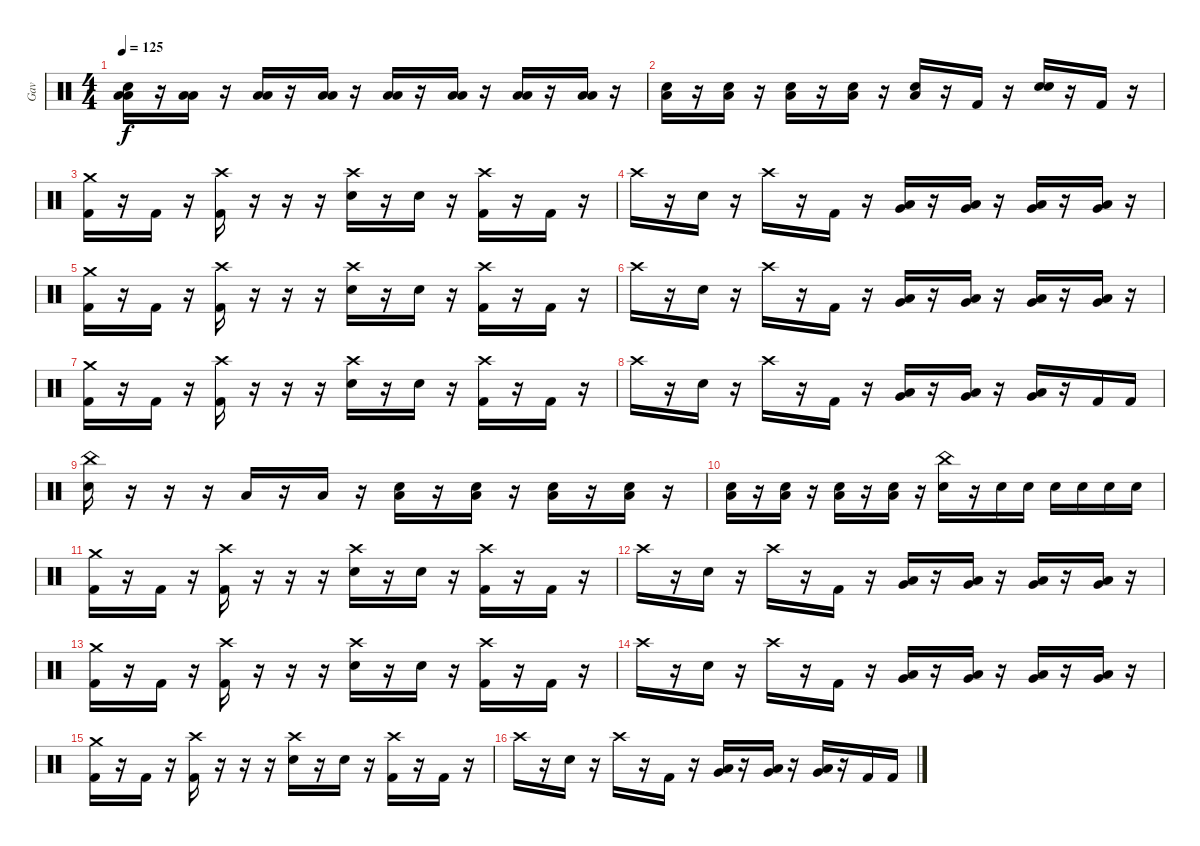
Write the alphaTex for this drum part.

\track ("Gav" "Gav") {instrument percussion}
\staff {score}
\articulation defaults
\ts (4 4)
\tempo 125
\clef neutral
\ks c
("Low Tom (hit)" "Low Floor Tom (hit)" "Snare (hit) 2").16{dy f} r.16 ("Low Tom (hit)" "Low Floor Tom (hit)").16 r.16 ("Low Tom (hit)" "Low Floor Tom (hit)").16 r.16 ("Low Tom (hit)" "Low Floor Tom (hit)").16 r.16 ("Low Tom (hit)" "Low Floor Tom (hit)").16 r.16 ("Low Tom (hit)" "Low Floor Tom (hit)").16 r.16 ("Low Tom (hit)" "Low Floor Tom (hit)").16 r.16 ("Low Tom (hit)" "Low Floor Tom (hit)").16 r.16 |
("Snare (hit) 2" "Low Floor Tom (hit)").16 r.16 ("Snare (hit) 2" "Low Floor Tom (hit)").16 r.16 ("Snare (hit) 2" "Low Floor Tom (hit)").16 r.16 ("Snare (hit) 2" "Low Floor Tom (hit)").16 r.16 ("Snare (hit) 2" "Low Floor Tom (hit)").16 r.16 "Kick (hit) 2".16 r.16 ("Snare (hit) 2" "Snare (hit) 2").16 r.16 "Kick (hit) 2".16 r.16 |
("Crash medium (hit)" "Kick (hit) 2").16 r.16 "Kick (hit) 2".16 r.16 ("Crash high (hit)" "Kick (hit) 2").16 r.16 r.16 r.16 ("Crash high (hit)" "Snare (hit) 2").16 r.16 "Snare (hit) 2".16 r.16 ("Crash high (hit)" "Kick (hit) 2").16 r.16 "Kick (hit) 2".16 r.16 |
"Crash high (hit)".16 r.16 "Snare (hit) 2".16 r.16 "Crash high (hit)".16 r.16 "Kick (hit) 2".16 r.16 ("Very Low Tom (hit)" "Low Floor Tom (hit)").16 r.16 ("Very Low Tom (hit)" "Low Floor Tom (hit)").16 r.16 ("Very Low Tom (hit)" "Low Floor Tom (hit)").16 r.16 ("Very Low Tom (hit)" "Low Floor Tom (hit)").16 r.16 |
("Crash medium (hit)" "Kick (hit) 2").16 r.16 "Kick (hit) 2".16 r.16 ("Crash high (hit)" "Kick (hit) 2").16 r.16 r.16 r.16 ("Crash high (hit)" "Snare (hit) 2").16 r.16 "Snare (hit) 2".16 r.16 ("Crash high (hit)" "Kick (hit) 2").16 r.16 "Kick (hit) 2".16 r.16 |
"Crash high (hit)".16 r.16 "Snare (hit) 2".16 r.16 "Crash high (hit)".16 r.16 "Kick (hit) 2".16 r.16 ("Very Low Tom (hit)" "Low Floor Tom (hit)").16 r.16 ("Very Low Tom (hit)" "Low Floor Tom (hit)").16 r.16 ("Very Low Tom (hit)" "Low Floor Tom (hit)").16 r.16 ("Very Low Tom (hit)" "Low Floor Tom (hit)").16 r.16 |
("Crash medium (hit)" "Kick (hit) 2").16 r.16 "Kick (hit) 2".16 r.16 ("Crash high (hit)" "Kick (hit) 2").16 r.16 r.16 r.16 ("Crash high (hit)" "Snare (hit) 2").16 r.16 "Snare (hit) 2".16 r.16 ("Crash high (hit)" "Kick (hit) 2").16 r.16 "Kick (hit) 2".16 r.16 |
"Crash high (hit)".16 r.16 "Snare (hit) 2".16 r.16 "Crash high (hit)".16 r.16 "Kick (hit) 2".16 r.16 ("Very Low Tom (hit)" "Low Floor Tom (hit)").16 r.16 ("Very Low Tom (hit)" "Low Floor Tom (hit)").16 r.16 ("Very Low Tom (hit)" "Low Floor Tom (hit)").16 r.16 "Kick (hit) 2".16 "Kick (hit) 2".16 |
("China (hit)" "Snare (hit) 2").16 r.16 r.16 r.16 "Low Floor Tom (hit)".16 r.16 "Low Floor Tom (hit)".16 r.16 ("Low Floor Tom (hit)" "Snare (hit) 2").16 r.16 ("Low Floor Tom (hit)" "Snare (hit) 2").16 r.16 ("Low Floor Tom (hit)" "Snare (hit) 2").16 r.16 ("Low Floor Tom (hit)" "Snare (hit) 2").16 r.16 |
("Low Floor Tom (hit)" "Snare (hit) 2").16 r.16 ("Low Floor Tom (hit)" "Snare (hit) 2").16 r.16 ("Low Floor Tom (hit)" "Snare (hit) 2").16 r.16 ("Low Floor Tom (hit)" "Snare (hit) 2").16 r.16 ("China (hit)" "Snare (hit) 2").16 r.16 "Snare (hit) 2".16 "Snare (hit) 2".16 "Snare (hit) 2".16 "Snare (hit) 2".16 "Snare (hit) 2".16 "Snare (hit) 2".16 |
("Crash medium (hit)" "Kick (hit) 2").16 r.16 "Kick (hit) 2".16 r.16 ("Crash high (hit)" "Kick (hit) 2").16 r.16 r.16 r.16 ("Crash high (hit)" "Snare (hit) 2").16 r.16 "Snare (hit) 2".16 r.16 ("Crash high (hit)" "Kick (hit) 2").16 r.16 "Kick (hit) 2".16 r.16 |
"Crash high (hit)".16 r.16 "Snare (hit) 2".16 r.16 "Crash high (hit)".16 r.16 "Kick (hit) 2".16 r.16 ("Very Low Tom (hit)" "Low Floor Tom (hit)").16 r.16 ("Very Low Tom (hit)" "Low Floor Tom (hit)").16 r.16 ("Very Low Tom (hit)" "Low Floor Tom (hit)").16 r.16 ("Very Low Tom (hit)" "Low Floor Tom (hit)").16 r.16 |
("Crash medium (hit)" "Kick (hit) 2").16 r.16 "Kick (hit) 2".16 r.16 ("Crash high (hit)" "Kick (hit) 2").16 r.16 r.16 r.16 ("Crash high (hit)" "Snare (hit) 2").16 r.16 "Snare (hit) 2".16 r.16 ("Crash high (hit)" "Kick (hit) 2").16 r.16 "Kick (hit) 2".16 r.16 |
"Crash high (hit)".16 r.16 "Snare (hit) 2".16 r.16 "Crash high (hit)".16 r.16 "Kick (hit) 2".16 r.16 ("Very Low Tom (hit)" "Low Floor Tom (hit)").16 r.16 ("Very Low Tom (hit)" "Low Floor Tom (hit)").16 r.16 ("Very Low Tom (hit)" "Low Floor Tom (hit)").16 r.16 ("Very Low Tom (hit)" "Low Floor Tom (hit)").16 r.16 |
("Crash medium (hit)" "Kick (hit) 2").16 r.16 "Kick (hit) 2".16 r.16 ("Crash high (hit)" "Kick (hit) 2").16 r.16 r.16 r.16 ("Crash high (hit)" "Snare (hit) 2").16 r.16 "Snare (hit) 2".16 r.16 ("Crash high (hit)" "Kick (hit) 2").16 r.16 "Kick (hit) 2".16 r.16 |
"Crash high (hit)".16 r.16 "Snare (hit) 2".16 r.16 "Crash high (hit)".16 r.16 "Kick (hit) 2".16 r.16 ("Very Low Tom (hit)" "Low Floor Tom (hit)").16 r.16 ("Very Low Tom (hit)" "Low Floor Tom (hit)").16 r.16 ("Very Low Tom (hit)" "Low Floor Tom (hit)").16 r.16 "Kick (hit) 2".16 "Kick (hit) 2".16
